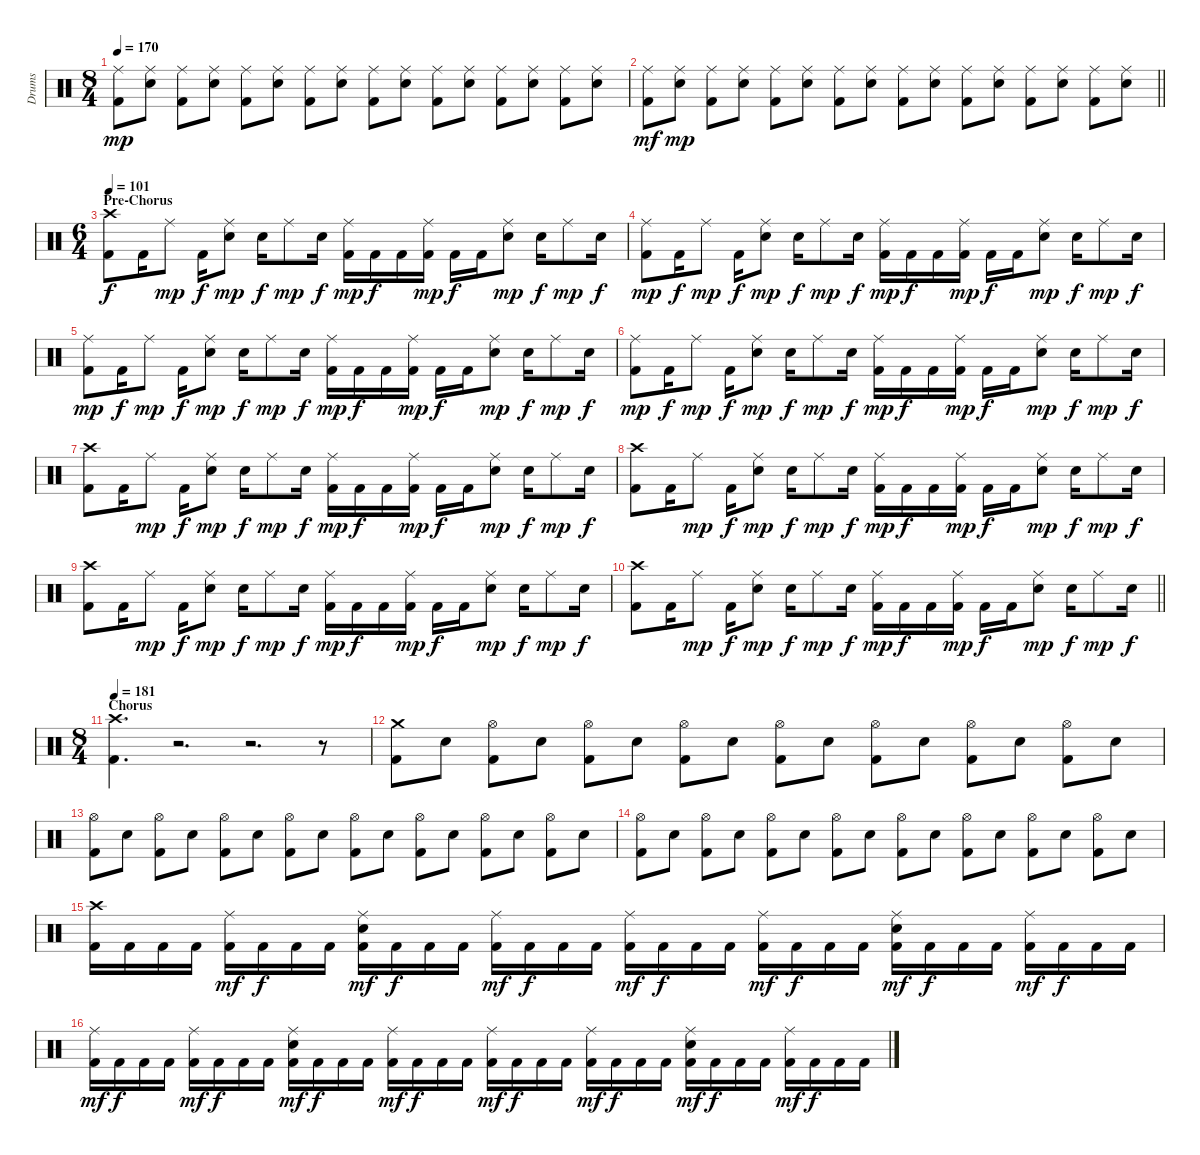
\track ("Drums" "Drums") {instrument percussion}
\staff {score}
\articulation defaults
\ts (8 4)
\tempo 170
\clef neutral
\ks c
("Ride (middle)" "Kick (hit) 2").8{dy mp} ("Ride (middle)" "Snare (hit) 2").8 ("Ride (middle)" "Kick (hit) 2").8 ("Ride (middle)" "Snare (hit) 2").8 ("Ride (middle)" "Kick (hit) 2").8 ("Ride (middle)" "Snare (hit) 2").8 ("Ride (middle)" "Kick (hit) 2").8 ("Ride (middle)" "Snare (hit) 2").8 ("Ride (middle)" "Kick (hit) 2").8 ("Ride (middle)" "Snare (hit) 2").8 ("Ride (middle)" "Kick (hit) 2").8 ("Ride (middle)" "Snare (hit) 2").8 ("Ride (middle)" "Kick (hit) 2").8 ("Ride (middle)" "Snare (hit) 2").8 ("Ride (middle)" "Kick (hit) 2").8 ("Ride (middle)" "Snare (hit) 2").8 |
\barLineRight lightlight
("Ride (middle)" "Kick (hit) 2").8{dy mf} ("Ride (middle)" "Snare (hit) 2").8{dy mp} ("Ride (middle)" "Kick (hit) 2").8 ("Ride (middle)" "Snare (hit) 2").8 ("Ride (middle)" "Kick (hit) 2").8 ("Ride (middle)" "Snare (hit) 2").8 ("Ride (middle)" "Kick (hit) 2").8 ("Ride (middle)" "Snare (hit) 2").8 ("Ride (middle)" "Kick (hit) 2").8 ("Ride (middle)" "Snare (hit) 2").8 ("Ride (middle)" "Kick (hit) 2").8 ("Ride (middle)" "Snare (hit) 2").8 ("Ride (middle)" "Kick (hit) 2").8 ("Ride (middle)" "Snare (hit) 2").8 ("Ride (middle)" "Kick (hit) 2").8 ("Ride (middle)" "Snare (hit) 2").8 |
\ts (6 4)
\section ("" "Pre-Chorus")
\tempo 101
("Crash high (hit)" "Kick (hit) 2").8{dy f} "Kick (hit) 2".16 "Ride (middle)".8{dy mp} "Kick (hit) 2".16{dy f} ("Ride (middle)" "Snare (hit) 2").8{dy mp} "Snare (hit) 2".16{dy f} "Ride (middle)".8{dy mp} "Snare (hit) 2".16{dy f} ("Ride (middle)" "Kick (hit) 2").16{dy mp} "Kick (hit) 2".16{dy f} "Kick (hit) 2".16 ("Ride (middle)" "Kick (hit) 2").16{dy mp} "Kick (hit) 2".16{dy f} "Kick (hit) 2".16 ("Ride (middle)" "Snare (hit) 2").8{dy mp} "Snare (hit) 2".16{dy f} "Ride (middle)".8{dy mp} "Snare (hit) 2".16{dy f} |
("Ride (middle)" "Kick (hit) 2").8{dy mp} "Kick (hit) 2".16{dy f} "Ride (middle)".8{dy mp} "Kick (hit) 2".16{dy f} ("Ride (middle)" "Snare (hit) 2").8{dy mp} "Snare (hit) 2".16{dy f} "Ride (middle)".8{dy mp} "Snare (hit) 2".16{dy f} ("Ride (middle)" "Kick (hit) 2").16{dy mp} "Kick (hit) 2".16{dy f} "Kick (hit) 2".16 ("Ride (middle)" "Kick (hit) 2").16{dy mp} "Kick (hit) 2".16{dy f} "Kick (hit) 2".16 ("Ride (middle)" "Snare (hit) 2").8{dy mp} "Snare (hit) 2".16{dy f} "Ride (middle)".8{dy mp} "Snare (hit) 2".16{dy f} |
("Ride (middle)" "Kick (hit) 2").8{dy mp} "Kick (hit) 2".16{dy f} "Ride (middle)".8{dy mp} "Kick (hit) 2".16{dy f} ("Ride (middle)" "Snare (hit) 2").8{dy mp} "Snare (hit) 2".16{dy f} "Ride (middle)".8{dy mp} "Snare (hit) 2".16{dy f} ("Ride (middle)" "Kick (hit) 2").16{dy mp} "Kick (hit) 2".16{dy f} "Kick (hit) 2".16 ("Ride (middle)" "Kick (hit) 2").16{dy mp} "Kick (hit) 2".16{dy f} "Kick (hit) 2".16 ("Ride (middle)" "Snare (hit) 2").8{dy mp} "Snare (hit) 2".16{dy f} "Ride (middle)".8{dy mp} "Snare (hit) 2".16{dy f} |
("Ride (middle)" "Kick (hit) 2").8{dy mp} "Kick (hit) 2".16{dy f} "Ride (middle)".8{dy mp} "Kick (hit) 2".16{dy f} ("Ride (middle)" "Snare (hit) 2").8{dy mp} "Snare (hit) 2".16{dy f} "Ride (middle)".8{dy mp} "Snare (hit) 2".16{dy f} ("Ride (middle)" "Kick (hit) 2").16{dy mp} "Kick (hit) 2".16{dy f} "Kick (hit) 2".16 ("Ride (middle)" "Kick (hit) 2").16{dy mp} "Kick (hit) 2".16{dy f} "Kick (hit) 2".16 ("Ride (middle)" "Snare (hit) 2").8{dy mp} "Snare (hit) 2".16{dy f} "Ride (middle)".8{dy mp} "Snare (hit) 2".16{dy f} |
("Crash high (hit)" "Kick (hit) 2").8 "Kick (hit) 2".16 "Ride (middle)".8{dy mp} "Kick (hit) 2".16{dy f} ("Ride (middle)" "Snare (hit) 2").8{dy mp} "Snare (hit) 2".16{dy f} "Ride (middle)".8{dy mp} "Snare (hit) 2".16{dy f} ("Ride (middle)" "Kick (hit) 2").16{dy mp} "Kick (hit) 2".16{dy f} "Kick (hit) 2".16 ("Ride (middle)" "Kick (hit) 2").16{dy mp} "Kick (hit) 2".16{dy f} "Kick (hit) 2".16 ("Ride (middle)" "Snare (hit) 2").8{dy mp} "Snare (hit) 2".16{dy f} "Ride (middle)".8{dy mp} "Snare (hit) 2".16{dy f} |
("Crash high (hit)" "Kick (hit) 2").8 "Kick (hit) 2".16 "Ride (middle)".8{dy mp} "Kick (hit) 2".16{dy f} ("Ride (middle)" "Snare (hit) 2").8{dy mp} "Snare (hit) 2".16{dy f} "Ride (middle)".8{dy mp} "Snare (hit) 2".16{dy f} ("Ride (middle)" "Kick (hit) 2").16{dy mp} "Kick (hit) 2".16{dy f} "Kick (hit) 2".16 ("Ride (middle)" "Kick (hit) 2").16{dy mp} "Kick (hit) 2".16{dy f} "Kick (hit) 2".16 ("Ride (middle)" "Snare (hit) 2").8{dy mp} "Snare (hit) 2".16{dy f} "Ride (middle)".8{dy mp} "Snare (hit) 2".16{dy f} |
("Crash high (hit)" "Kick (hit) 2").8 "Kick (hit) 2".16 "Ride (middle)".8{dy mp} "Kick (hit) 2".16{dy f} ("Ride (middle)" "Snare (hit) 2").8{dy mp} "Snare (hit) 2".16{dy f} "Ride (middle)".8{dy mp} "Snare (hit) 2".16{dy f} ("Ride (middle)" "Kick (hit) 2").16{dy mp} "Kick (hit) 2".16{dy f} "Kick (hit) 2".16 ("Ride (middle)" "Kick (hit) 2").16{dy mp} "Kick (hit) 2".16{dy f} "Kick (hit) 2".16 ("Ride (middle)" "Snare (hit) 2").8{dy mp} "Snare (hit) 2".16{dy f} "Ride (middle)".8{dy mp} "Snare (hit) 2".16{dy f} |
\barLineRight lightlight
("Crash high (hit)" "Kick (hit) 2").8 "Kick (hit) 2".16 "Ride (middle)".8{dy mp} "Kick (hit) 2".16{dy f} ("Ride (middle)" "Snare (hit) 2").8{dy mp} "Snare (hit) 2".16{dy f} "Ride (middle)".8{dy mp} "Snare (hit) 2".16{dy f} ("Ride (middle)" "Kick (hit) 2").16{dy mp} "Kick (hit) 2".16{dy f} "Kick (hit) 2".16 ("Ride (middle)" "Kick (hit) 2").16{dy mp} "Kick (hit) 2".16{dy f} "Kick (hit) 2".16 ("Ride (middle)" "Snare (hit) 2").8{dy mp} "Snare (hit) 2".16{dy f} "Ride (middle)".8{dy mp} "Snare (hit) 2".16{dy f} |
\ts (8 4)
\section ("" "Chorus")
\tempo 181
("Crash high (hit)" "Kick (hit) 2").4{d} r.2{d} r.2{d} r.8 |
("Crash medium (hit)" "Kick (hit) 2").8 "Snare (hit) 2".8 ("Hi-Hat (open)" "Kick (hit) 2").8 "Snare (hit) 2".8 ("Hi-Hat (open)" "Kick (hit) 2").8 "Snare (hit) 2".8 ("Hi-Hat (open)" "Kick (hit) 2").8 "Snare (hit) 2".8 ("Hi-Hat (open)" "Kick (hit) 2").8 "Snare (hit) 2".8 ("Hi-Hat (open)" "Kick (hit) 2").8 "Snare (hit) 2".8 ("Hi-Hat (open)" "Kick (hit) 2").8 "Snare (hit) 2".8 ("Hi-Hat (open)" "Kick (hit) 2").8 "Snare (hit) 2".8 |
("Hi-Hat (open)" "Kick (hit) 2").8 "Snare (hit) 2".8 ("Hi-Hat (open)" "Kick (hit) 2").8 "Snare (hit) 2".8 ("Hi-Hat (open)" "Kick (hit) 2").8 "Snare (hit) 2".8 ("Hi-Hat (open)" "Kick (hit) 2").8 "Snare (hit) 2".8 ("Hi-Hat (open)" "Kick (hit) 2").8 "Snare (hit) 2".8 ("Hi-Hat (open)" "Kick (hit) 2").8 "Snare (hit) 2".8 ("Hi-Hat (open)" "Kick (hit) 2").8 "Snare (hit) 2".8 ("Hi-Hat (open)" "Kick (hit) 2").8 "Snare (hit) 2".8 |
("Hi-Hat (open)" "Kick (hit) 2").8 "Snare (hit) 2".8 ("Hi-Hat (open)" "Kick (hit) 2").8 "Snare (hit) 2".8 ("Hi-Hat (open)" "Kick (hit) 2").8 "Snare (hit) 2".8 ("Hi-Hat (open)" "Kick (hit) 2").8 "Snare (hit) 2".8 ("Hi-Hat (open)" "Kick (hit) 2").8 "Snare (hit) 2".8 ("Hi-Hat (open)" "Kick (hit) 2").8 "Snare (hit) 2".8 ("Hi-Hat (open)" "Kick (hit) 2").8 "Snare (hit) 2".8 ("Hi-Hat (open)" "Kick (hit) 2").8 "Snare (hit) 2".8 |
("Crash high (hit)" "Kick (hit) 2").16 "Kick (hit) 2".16 "Kick (hit) 2".16 "Kick (hit) 2".16 ("Ride (middle)" "Kick (hit) 2").16{dy mf} "Kick (hit) 2".16{dy f} "Kick (hit) 2".16 "Kick (hit) 2".16 ("Ride (middle)" "Snare (hit) 2" "Kick (hit) 2").16{dy mf} "Kick (hit) 2".16{dy f} "Kick (hit) 2".16 "Kick (hit) 2".16 ("Ride (middle)" "Kick (hit) 2").16{dy mf} "Kick (hit) 2".16{dy f} "Kick (hit) 2".16 "Kick (hit) 2".16 ("Ride (middle)" "Kick (hit) 2").16{dy mf} "Kick (hit) 2".16{dy f} "Kick (hit) 2".16 "Kick (hit) 2".16 ("Ride (middle)" "Kick (hit) 2").16{dy mf} "Kick (hit) 2".16{dy f} "Kick (hit) 2".16 "Kick (hit) 2".16 ("Ride (middle)" "Snare (hit) 2" "Kick (hit) 2").16{dy mf} "Kick (hit) 2".16{dy f} "Kick (hit) 2".16 "Kick (hit) 2".16 ("Ride (middle)" "Kick (hit) 2").16{dy mf} "Kick (hit) 2".16{dy f} "Kick (hit) 2".16 "Kick (hit) 2".16 |
("Ride (middle)" "Kick (hit) 2").16{dy mf} "Kick (hit) 2".16{dy f} "Kick (hit) 2".16 "Kick (hit) 2".16 ("Ride (middle)" "Kick (hit) 2").16{dy mf} "Kick (hit) 2".16{dy f} "Kick (hit) 2".16 "Kick (hit) 2".16 ("Ride (middle)" "Snare (hit) 2" "Kick (hit) 2").16{dy mf} "Kick (hit) 2".16{dy f} "Kick (hit) 2".16 "Kick (hit) 2".16 ("Ride (middle)" "Kick (hit) 2").16{dy mf} "Kick (hit) 2".16{dy f} "Kick (hit) 2".16 "Kick (hit) 2".16 ("Ride (middle)" "Kick (hit) 2").16{dy mf} "Kick (hit) 2".16{dy f} "Kick (hit) 2".16 "Kick (hit) 2".16 ("Ride (middle)" "Kick (hit) 2").16{dy mf} "Kick (hit) 2".16{dy f} "Kick (hit) 2".16 "Kick (hit) 2".16 ("Ride (middle)" "Snare (hit) 2" "Kick (hit) 2").16{dy mf} "Kick (hit) 2".16{dy f} "Kick (hit) 2".16 "Kick (hit) 2".16 ("Ride (middle)" "Kick (hit) 2").16{dy mf} "Kick (hit) 2".16{dy f} "Kick (hit) 2".16 "Kick (hit) 2".16
